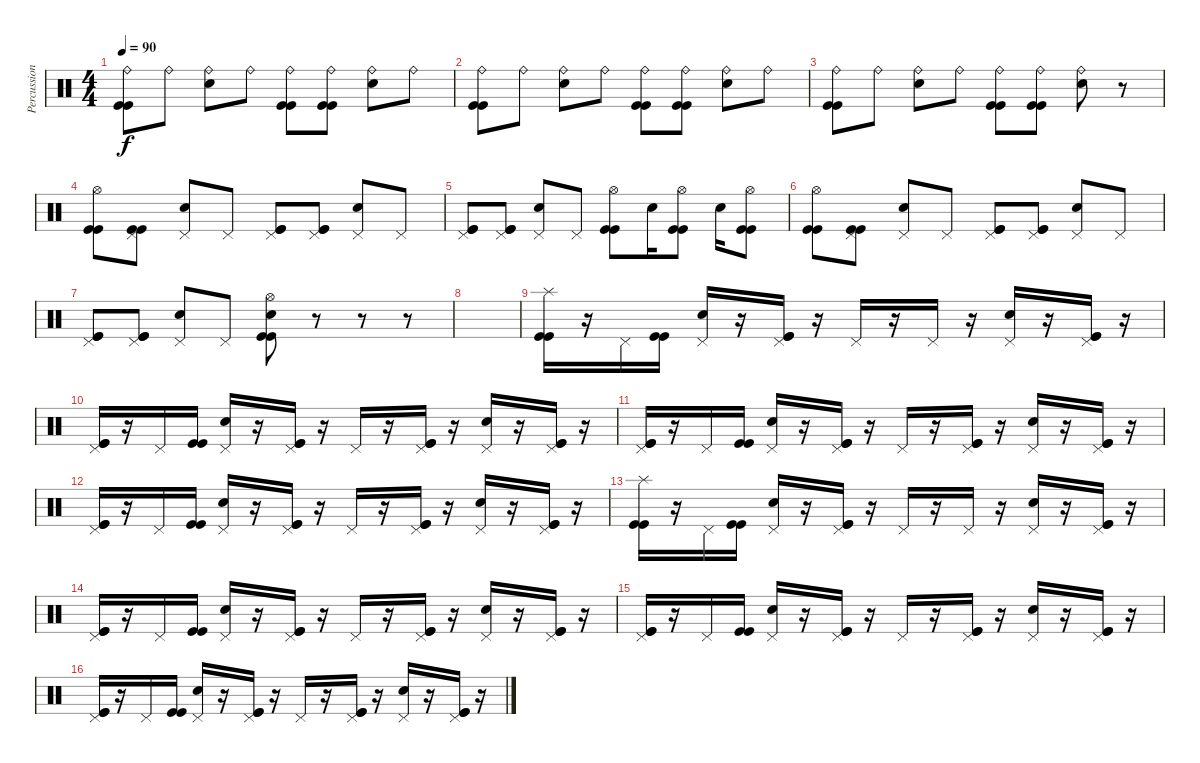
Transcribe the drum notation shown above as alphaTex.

\track ("Percussion" "Percussion") {instrument percussion}
\staff {score}
\articulation defaults
\ts (4 4)
\tempo 90
\clef neutral
\ks c
("Ride (bell)" "Kick (hit)" "Kick (hit)").8{dy f} "Ride (bell)".8 ("Ride (bell)" "Electric Snare (hit)").8 "Ride (bell)".8 ("Ride (bell)" "Kick (hit)" "Kick (hit)").8 ("Ride (bell)" "Kick (hit)" "Kick (hit)").8 ("Ride (bell)" "Electric Snare (hit)").8 "Ride (bell)".8 |
("Ride (bell)" "Kick (hit)" "Kick (hit)").8 "Ride (bell)".8 ("Ride (bell)" "Electric Snare (hit)").8 "Ride (bell)".8 ("Ride (bell)" "Kick (hit)" "Kick (hit)").8 ("Ride (bell)" "Kick (hit)" "Kick (hit)").8 ("Ride (bell)" "Electric Snare (hit)").8 "Ride (bell)".8 |
("Ride (bell)" "Kick (hit)" "Kick (hit)").8 "Ride (bell)".8 ("Ride (bell)" "Electric Snare (hit)").8 "Ride (bell)".8 ("Ride (bell)" "Kick (hit)" "Kick (hit)").8 ("Ride (bell)" "Kick (hit)" "Kick (hit)").8 ("Ride (bell)" "Electric Snare (hit)").8 r.8 |
("Hi-Hat (open)" "Kick (hit)" "Kick (hit)").8 ("Pedal Hi-Hat (hit)" "Kick (hit)" "Kick (hit)").8 ("Pedal Hi-Hat (hit)" "Electric Snare (hit)").8 "Pedal Hi-Hat (hit)".8 ("Pedal Hi-Hat (hit)" "Kick (hit)" "Kick (hit)").8 ("Pedal Hi-Hat (hit)" "Kick (hit)" "Kick (hit)").8 ("Pedal Hi-Hat (hit)" "Electric Snare (hit)").8 "Pedal Hi-Hat (hit)".8 |
("Pedal Hi-Hat (hit)" "Kick (hit)" "Kick (hit)").8 ("Pedal Hi-Hat (hit)" "Kick (hit)" "Kick (hit)").8 ("Pedal Hi-Hat (hit)" "Electric Snare (hit)").8 "Pedal Hi-Hat (hit)".8 ("Hi-Hat (open)" "Kick (hit)" "Kick (hit)").8 "Electric Snare (hit)".16 ("Hi-Hat (open)" "Kick (hit)" "Kick (hit)").8 "Electric Snare (hit)".16 ("Hi-Hat (open)" "Kick (hit)" "Kick (hit)").8 |
("Hi-Hat (open)" "Kick (hit)" "Kick (hit)").8 ("Pedal Hi-Hat (hit)" "Kick (hit)" "Kick (hit)").8 ("Pedal Hi-Hat (hit)" "Electric Snare (hit)").8 "Pedal Hi-Hat (hit)".8 ("Pedal Hi-Hat (hit)" "Kick (hit)" "Kick (hit)").8 ("Pedal Hi-Hat (hit)" "Kick (hit)" "Kick (hit)").8 ("Pedal Hi-Hat (hit)" "Electric Snare (hit)").8 "Pedal Hi-Hat (hit)".8 |
("Pedal Hi-Hat (hit)" "Kick (hit)" "Kick (hit)").8 ("Pedal Hi-Hat (hit)" "Kick (hit)" "Kick (hit)").8 ("Pedal Hi-Hat (hit)" "Electric Snare (hit)").8 "Pedal Hi-Hat (hit)".8 ("Hi-Hat (open)" "Kick (hit)" "Kick (hit)" "Electric Snare (hit)").8 r.8 r.8 r.8 |
|
("Splash (hit)" "Kick (hit)" "Kick (hit)").16 r.16 "Pedal Hi-Hat (hit)".16 ("Kick (hit)" "Kick (hit)").16 ("Pedal Hi-Hat (hit)" "Electric Snare (hit)").16 r.16 ("Pedal Hi-Hat (hit)" "Kick (hit)" "Kick (hit)").16 r.16 "Pedal Hi-Hat (hit)".16 r.16 "Pedal Hi-Hat (hit)".16 r.16 ("Pedal Hi-Hat (hit)" "Electric Snare (hit)").16 r.16 ("Pedal Hi-Hat (hit)" "Kick (hit)" "Kick (hit)").16 r.16 |
("Pedal Hi-Hat (hit)" "Kick (hit)" "Kick (hit)").16 r.16 "Pedal Hi-Hat (hit)".16 ("Kick (hit)" "Kick (hit)").16 ("Pedal Hi-Hat (hit)" "Electric Snare (hit)").16 r.16 ("Pedal Hi-Hat (hit)" "Kick (hit)" "Kick (hit)").16 r.16 "Pedal Hi-Hat (hit)".16 r.16 ("Pedal Hi-Hat (hit)" "Kick (hit)" "Kick (hit)").16 r.16 ("Pedal Hi-Hat (hit)" "Electric Snare (hit)").16 r.16 ("Pedal Hi-Hat (hit)" "Kick (hit)" "Kick (hit)").16 r.16 |
("Pedal Hi-Hat (hit)" "Kick (hit)" "Kick (hit)").16 r.16 "Pedal Hi-Hat (hit)".16 ("Kick (hit)" "Kick (hit)").16 ("Pedal Hi-Hat (hit)" "Electric Snare (hit)").16 r.16 ("Pedal Hi-Hat (hit)" "Kick (hit)" "Kick (hit)").16 r.16 "Pedal Hi-Hat (hit)".16 r.16 ("Pedal Hi-Hat (hit)" "Kick (hit)" "Kick (hit)").16 r.16 ("Pedal Hi-Hat (hit)" "Electric Snare (hit)").16 r.16 ("Pedal Hi-Hat (hit)" "Kick (hit)" "Kick (hit)").16 r.16 |
("Pedal Hi-Hat (hit)" "Kick (hit)" "Kick (hit)").16 r.16 "Pedal Hi-Hat (hit)".16 ("Kick (hit)" "Kick (hit)").16 ("Pedal Hi-Hat (hit)" "Electric Snare (hit)").16 r.16 ("Pedal Hi-Hat (hit)" "Kick (hit)" "Kick (hit)").16 r.16 "Pedal Hi-Hat (hit)".16 r.16 ("Pedal Hi-Hat (hit)" "Kick (hit)" "Kick (hit)").16 r.16 ("Pedal Hi-Hat (hit)" "Electric Snare (hit)").16 r.16 ("Pedal Hi-Hat (hit)" "Kick (hit)" "Kick (hit)").16 r.16 |
("Splash (hit)" "Kick (hit)" "Kick (hit)").16 r.16 "Pedal Hi-Hat (hit)".16 ("Kick (hit)" "Kick (hit)").16 ("Pedal Hi-Hat (hit)" "Electric Snare (hit)").16 r.16 ("Pedal Hi-Hat (hit)" "Kick (hit)" "Kick (hit)").16 r.16 "Pedal Hi-Hat (hit)".16 r.16 "Pedal Hi-Hat (hit)".16 r.16 ("Pedal Hi-Hat (hit)" "Electric Snare (hit)").16 r.16 ("Pedal Hi-Hat (hit)" "Kick (hit)" "Kick (hit)").16 r.16 |
("Pedal Hi-Hat (hit)" "Kick (hit)" "Kick (hit)").16 r.16 "Pedal Hi-Hat (hit)".16 ("Kick (hit)" "Kick (hit)").16 ("Pedal Hi-Hat (hit)" "Electric Snare (hit)").16 r.16 ("Pedal Hi-Hat (hit)" "Kick (hit)" "Kick (hit)").16 r.16 "Pedal Hi-Hat (hit)".16 r.16 ("Pedal Hi-Hat (hit)" "Kick (hit)" "Kick (hit)").16 r.16 ("Pedal Hi-Hat (hit)" "Electric Snare (hit)").16 r.16 ("Pedal Hi-Hat (hit)" "Kick (hit)" "Kick (hit)").16 r.16 |
("Pedal Hi-Hat (hit)" "Kick (hit)" "Kick (hit)").16 r.16 "Pedal Hi-Hat (hit)".16 ("Kick (hit)" "Kick (hit)").16 ("Pedal Hi-Hat (hit)" "Electric Snare (hit)").16 r.16 ("Pedal Hi-Hat (hit)" "Kick (hit)" "Kick (hit)").16 r.16 "Pedal Hi-Hat (hit)".16 r.16 ("Pedal Hi-Hat (hit)" "Kick (hit)" "Kick (hit)").16 r.16 ("Pedal Hi-Hat (hit)" "Electric Snare (hit)").16 r.16 ("Pedal Hi-Hat (hit)" "Kick (hit)" "Kick (hit)").16 r.16 |
("Pedal Hi-Hat (hit)" "Kick (hit)" "Kick (hit)").16 r.16 "Pedal Hi-Hat (hit)".16 ("Kick (hit)" "Kick (hit)").16 ("Pedal Hi-Hat (hit)" "Electric Snare (hit)").16 r.16 ("Pedal Hi-Hat (hit)" "Kick (hit)" "Kick (hit)").16 r.16 "Pedal Hi-Hat (hit)".16 r.16 ("Pedal Hi-Hat (hit)" "Kick (hit)" "Kick (hit)").16 r.16 ("Pedal Hi-Hat (hit)" "Electric Snare (hit)").16 r.16 ("Pedal Hi-Hat (hit)" "Kick (hit)" "Kick (hit)").16 r.16
